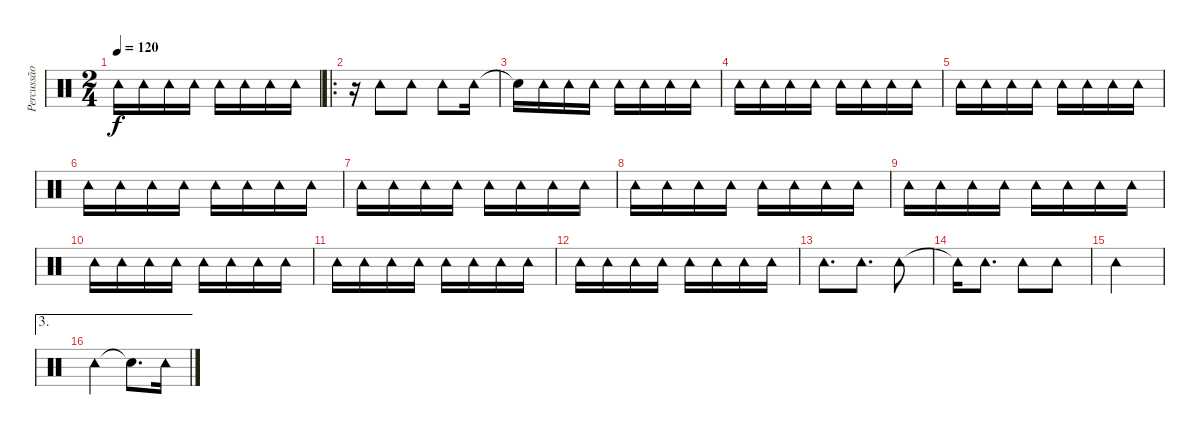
\track ("Percussão" "Percussão") {instrument percussion}
\staff {score}
\articulation defaults
\ts (2 4)
\tempo 120
\clef neutral
\ks c "Tambourine (hit)".16{dy f} "Tambourine (hit)".16 "Tambourine (hit)".16 "Tambourine (hit)".16 "Tambourine (hit)".16 "Tambourine (hit)".16 "Tambourine (hit)".16 "Tambourine (hit)".16
|
\ro
r.16 "Tambourine (hit)".8 "Tambourine (hit)".8 "Tambourine (hit)".8 "Tambourine (hit)".16 |
"Snare (hit)"{t}.16 "Tambourine (hit)".16 "Tambourine (hit)".16 "Tambourine (hit)".16 "Tambourine (hit)".16 "Tambourine (hit)".16 "Tambourine (hit)".16 "Tambourine (hit)".16 |
"Tambourine (hit)".16 "Tambourine (hit)".16 "Tambourine (hit)".16 "Tambourine (hit)".16 "Tambourine (hit)".16 "Tambourine (hit)".16 "Tambourine (hit)".16 "Tambourine (hit)".16 |
"Tambourine (hit)".16 "Tambourine (hit)".16 "Tambourine (hit)".16 "Tambourine (hit)".16 "Tambourine (hit)".16 "Tambourine (hit)".16 "Tambourine (hit)".16 "Tambourine (hit)".16 |
"Tambourine (hit)".16 "Tambourine (hit)".16 "Tambourine (hit)".16 "Tambourine (hit)".16 "Tambourine (hit)".16 "Tambourine (hit)".16 "Tambourine (hit)".16 "Tambourine (hit)".16 |
"Tambourine (hit)".16 "Tambourine (hit)".16 "Tambourine (hit)".16 "Tambourine (hit)".16 "Tambourine (hit)".16 "Tambourine (hit)".16 "Tambourine (hit)".16 "Tambourine (hit)".16 |
"Tambourine (hit)".16 "Tambourine (hit)".16 "Tambourine (hit)".16 "Tambourine (hit)".16 "Tambourine (hit)".16 "Tambourine (hit)".16 "Tambourine (hit)".16 "Tambourine (hit)".16 |
"Tambourine (hit)".16 "Tambourine (hit)".16 "Tambourine (hit)".16 "Tambourine (hit)".16 "Tambourine (hit)".16 "Tambourine (hit)".16 "Tambourine (hit)".16 "Tambourine (hit)".16 |
"Tambourine (hit)".16 "Tambourine (hit)".16 "Tambourine (hit)".16 "Tambourine (hit)".16 "Tambourine (hit)".16 "Tambourine (hit)".16 "Tambourine (hit)".16 "Tambourine (hit)".16 |
"Tambourine (hit)".16 "Tambourine (hit)".16 "Tambourine (hit)".16 "Tambourine (hit)".16 "Tambourine (hit)".16 "Tambourine (hit)".16 "Tambourine (hit)".16 "Tambourine (hit)".16 |
"Tambourine (hit)".16 "Tambourine (hit)".16 "Tambourine (hit)".16 "Tambourine (hit)".16 "Tambourine (hit)".16 "Tambourine (hit)".16 "Tambourine (hit)".16 "Tambourine (hit)".16 |
"Tambourine (hit)".8{d} "Tambourine (hit)".8{d} "Tambourine (hit)".8 |
"Tambourine (hit)"{t}.16 "Tambourine (hit)".8{d} "Tambourine (hit)".8 "Tambourine (hit)".8 |
"Tambourine (hit)".2 |
\ae 3 "Tambourine (hit)".4 "Snare (hit)"{t}.8{d} "Tambourine (hit)".16
